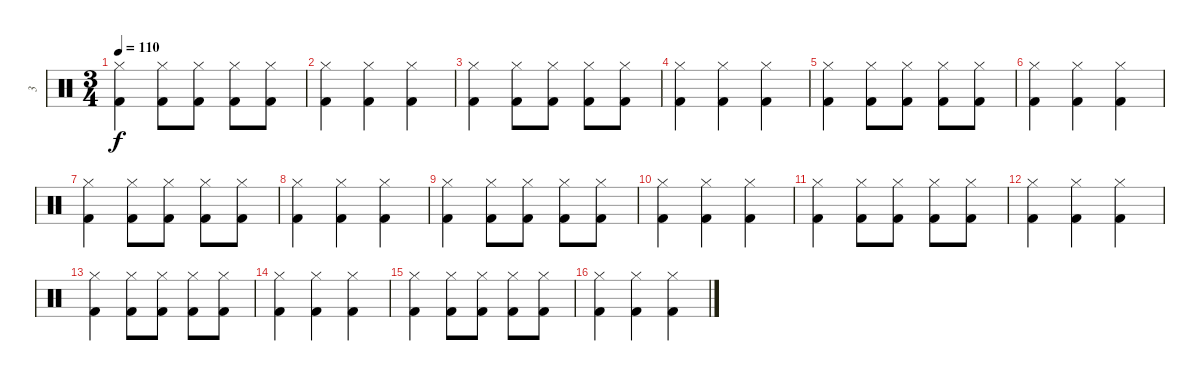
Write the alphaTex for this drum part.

\track ("3" "3") {instrument percussion}
\staff {score}
\articulation defaults
\ts (3 4)
\tempo 110
\clef neutral
\ks c
("Hi-Hat (closed)" "Kick (hit) 2").4{dy f} ("Hi-Hat (closed)" "Kick (hit) 2").8 ("Hi-Hat (closed)" "Kick (hit) 2").8 ("Hi-Hat (closed)" "Kick (hit) 2").8 ("Hi-Hat (closed)" "Kick (hit) 2").8 |
("Hi-Hat (closed)" "Kick (hit) 2").4 ("Hi-Hat (closed)" "Kick (hit) 2").4 ("Hi-Hat (closed)" "Kick (hit) 2").4 |
("Hi-Hat (closed)" "Kick (hit) 2").4 ("Hi-Hat (closed)" "Kick (hit) 2").8 ("Hi-Hat (closed)" "Kick (hit) 2").8 ("Hi-Hat (closed)" "Kick (hit) 2").8 ("Hi-Hat (closed)" "Kick (hit) 2").8 |
("Hi-Hat (closed)" "Kick (hit) 2").4 ("Hi-Hat (closed)" "Kick (hit) 2").4 ("Hi-Hat (closed)" "Kick (hit) 2").4 |
("Hi-Hat (closed)" "Kick (hit) 2").4 ("Hi-Hat (closed)" "Kick (hit) 2").8 ("Hi-Hat (closed)" "Kick (hit) 2").8 ("Hi-Hat (closed)" "Kick (hit) 2").8 ("Hi-Hat (closed)" "Kick (hit) 2").8 |
("Hi-Hat (closed)" "Kick (hit) 2").4 ("Hi-Hat (closed)" "Kick (hit) 2").4 ("Hi-Hat (closed)" "Kick (hit) 2").4 |
("Hi-Hat (closed)" "Kick (hit) 2").4 ("Hi-Hat (closed)" "Kick (hit) 2").8 ("Hi-Hat (closed)" "Kick (hit) 2").8 ("Hi-Hat (closed)" "Kick (hit) 2").8 ("Hi-Hat (closed)" "Kick (hit) 2").8 |
("Hi-Hat (closed)" "Kick (hit) 2").4 ("Hi-Hat (closed)" "Kick (hit) 2").4 ("Hi-Hat (closed)" "Kick (hit) 2").4 |
("Hi-Hat (closed)" "Kick (hit) 2").4 ("Hi-Hat (closed)" "Kick (hit) 2").8 ("Hi-Hat (closed)" "Kick (hit) 2").8 ("Hi-Hat (closed)" "Kick (hit) 2").8 ("Hi-Hat (closed)" "Kick (hit) 2").8 |
("Hi-Hat (closed)" "Kick (hit) 2").4 ("Hi-Hat (closed)" "Kick (hit) 2").4 ("Hi-Hat (closed)" "Kick (hit) 2").4 |
("Hi-Hat (closed)" "Kick (hit) 2").4 ("Hi-Hat (closed)" "Kick (hit) 2").8 ("Hi-Hat (closed)" "Kick (hit) 2").8 ("Hi-Hat (closed)" "Kick (hit) 2").8 ("Hi-Hat (closed)" "Kick (hit) 2").8 |
("Hi-Hat (closed)" "Kick (hit) 2").4 ("Hi-Hat (closed)" "Kick (hit) 2").4 ("Hi-Hat (closed)" "Kick (hit) 2").4 |
("Hi-Hat (closed)" "Kick (hit) 2").4 ("Hi-Hat (closed)" "Kick (hit) 2").8 ("Hi-Hat (closed)" "Kick (hit) 2").8 ("Hi-Hat (closed)" "Kick (hit) 2").8 ("Hi-Hat (closed)" "Kick (hit) 2").8 |
("Hi-Hat (closed)" "Kick (hit) 2").4 ("Hi-Hat (closed)" "Kick (hit) 2").4 ("Hi-Hat (closed)" "Kick (hit) 2").4 |
("Hi-Hat (closed)" "Kick (hit) 2").4 ("Hi-Hat (closed)" "Kick (hit) 2").8 ("Hi-Hat (closed)" "Kick (hit) 2").8 ("Hi-Hat (closed)" "Kick (hit) 2").8 ("Hi-Hat (closed)" "Kick (hit) 2").8 |
("Hi-Hat (closed)" "Kick (hit) 2").4 ("Hi-Hat (closed)" "Kick (hit) 2").4 ("Hi-Hat (closed)" "Kick (hit) 2").4
